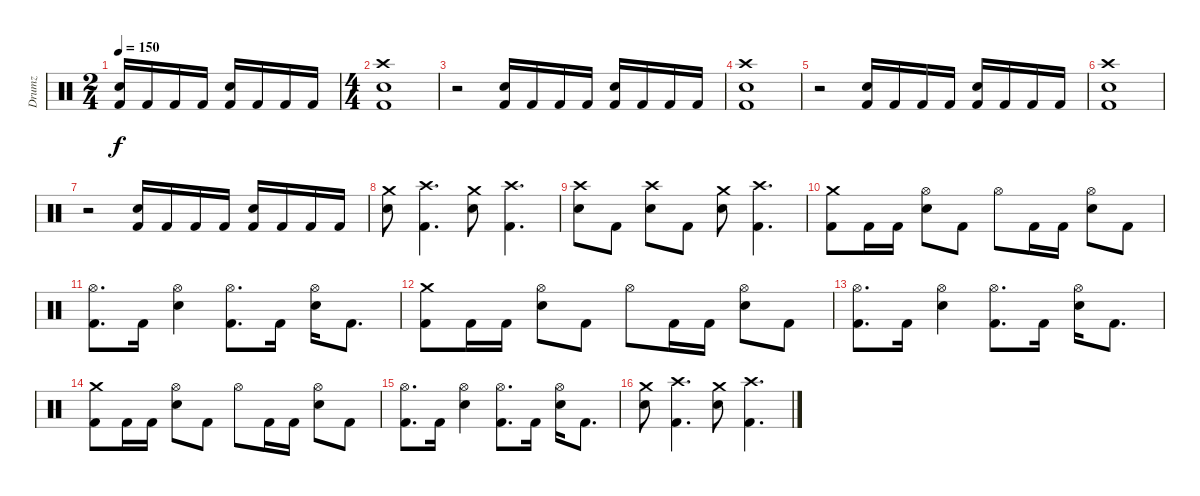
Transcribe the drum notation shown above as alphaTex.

\track ("Drumz" "Drumz") {instrument percussion}
\staff {score}
\articulation defaults
\ts (2 4)
\tempo 150
\clef neutral
\ks c
("Electric Snare (hit)" "Kick (hit) 2").16{dy f} "Kick (hit) 2".16 "Kick (hit) 2".16 "Kick (hit) 2".16 ("Electric Snare (hit)" "Kick (hit) 2").16 "Kick (hit) 2".16 "Kick (hit) 2".16 "Kick (hit) 2".16 |
\ts (4 4)
("Crash high (hit)" "Electric Snare (hit)" "Kick (hit) 2").1 |
r.2 ("Electric Snare (hit)" "Kick (hit) 2").16 "Kick (hit) 2".16 "Kick (hit) 2".16 "Kick (hit) 2".16 ("Electric Snare (hit)" "Kick (hit) 2").16 "Kick (hit) 2".16 "Kick (hit) 2".16 "Kick (hit) 2".16 |
("Crash high (hit)" "Electric Snare (hit)" "Kick (hit) 2").1 |
r.2 ("Electric Snare (hit)" "Kick (hit) 2").16 "Kick (hit) 2".16 "Kick (hit) 2".16 "Kick (hit) 2".16 ("Electric Snare (hit)" "Kick (hit) 2").16 "Kick (hit) 2".16 "Kick (hit) 2".16 "Kick (hit) 2".16 |
("Crash high (hit)" "Electric Snare (hit)" "Kick (hit) 2").1 |
r.2 ("Electric Snare (hit)" "Kick (hit) 2").16 "Kick (hit) 2".16 "Kick (hit) 2".16 "Kick (hit) 2".16 ("Electric Snare (hit)" "Kick (hit) 2").16 "Kick (hit) 2".16 "Kick (hit) 2".16 "Kick (hit) 2".16 |
("Crash medium (hit)" "Electric Snare (hit)").8 ("Crash high (hit)" "Kick (hit) 2").4{d} ("Crash medium (hit)" "Electric Snare (hit)").8 ("Crash high (hit)" "Kick (hit) 2").4{d} |
("Crash high (hit)" "Electric Snare (hit)").8 "Kick (hit) 2".8 ("Crash high (hit)" "Electric Snare (hit)").8 "Kick (hit) 2".8 ("Crash medium (hit)" "Electric Snare (hit)").8 ("Crash high (hit)" "Kick (hit) 2").4{d} |
("Crash medium (hit)" "Kick (hit) 2").8 "Kick (hit) 2".16 "Kick (hit) 2".16 ("Hi-Hat (open)" "Electric Snare (hit)").8 "Kick (hit) 2".8 "Hi-Hat (open)".8 "Kick (hit) 2".16 "Kick (hit) 2".16 ("Hi-Hat (open)" "Electric Snare (hit)").8 "Kick (hit) 2".8 |
("Hi-Hat (open)" "Kick (hit) 2").8{d} "Kick (hit) 2".16 ("Hi-Hat (open)" "Electric Snare (hit)").4 ("Hi-Hat (open)" "Kick (hit) 2").8{d} "Kick (hit) 2".16 ("Hi-Hat (open)" "Electric Snare (hit)").16 "Kick (hit) 2".8{d} |
("Crash medium (hit)" "Kick (hit) 2").8 "Kick (hit) 2".16 "Kick (hit) 2".16 ("Hi-Hat (open)" "Electric Snare (hit)").8 "Kick (hit) 2".8 "Hi-Hat (open)".8 "Kick (hit) 2".16 "Kick (hit) 2".16 ("Hi-Hat (open)" "Electric Snare (hit)").8 "Kick (hit) 2".8 |
("Hi-Hat (open)" "Kick (hit) 2").8{d} "Kick (hit) 2".16 ("Hi-Hat (open)" "Electric Snare (hit)").4 ("Hi-Hat (open)" "Kick (hit) 2").8{d} "Kick (hit) 2".16 ("Hi-Hat (open)" "Electric Snare (hit)").16 "Kick (hit) 2".8{d} |
("Crash medium (hit)" "Kick (hit) 2").8 "Kick (hit) 2".16 "Kick (hit) 2".16 ("Hi-Hat (open)" "Electric Snare (hit)").8 "Kick (hit) 2".8 "Hi-Hat (open)".8 "Kick (hit) 2".16 "Kick (hit) 2".16 ("Hi-Hat (open)" "Electric Snare (hit)").8 "Kick (hit) 2".8 |
("Hi-Hat (open)" "Kick (hit) 2").8{d} "Kick (hit) 2".16 ("Hi-Hat (open)" "Electric Snare (hit)").4 ("Hi-Hat (open)" "Kick (hit) 2").8{d} "Kick (hit) 2".16 ("Hi-Hat (open)" "Electric Snare (hit)").16 "Kick (hit) 2".8{d} |
("Crash medium (hit)" "Electric Snare (hit)").8 ("Crash high (hit)" "Kick (hit) 2").4{d} ("Crash medium (hit)" "Electric Snare (hit)").8 ("Crash high (hit)" "Kick (hit) 2").4{d}
